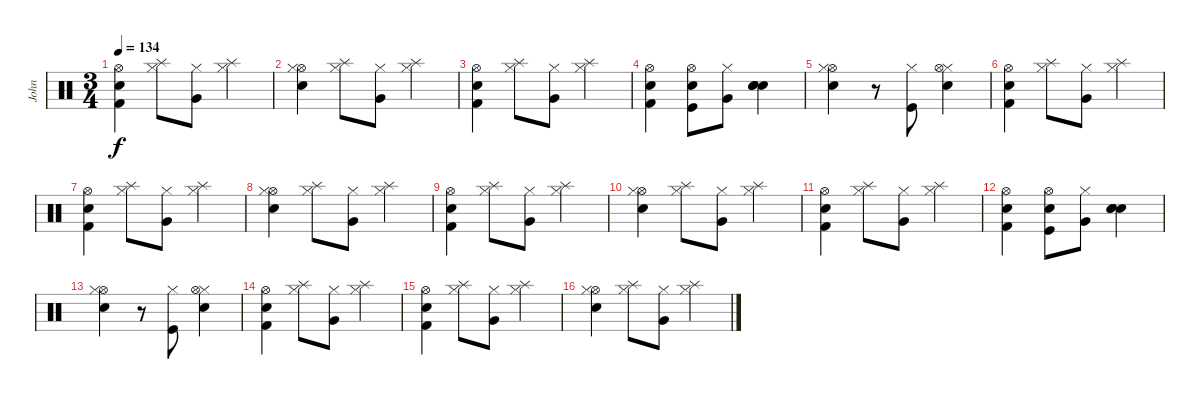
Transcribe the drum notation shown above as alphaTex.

\track ("John" "John") {instrument percussion}
\staff {score}
\articulation defaults
\ts (3 4)
\tempo 134
\clef neutral
\ks c
("Hi-Hat (open)" "Electric Snare (hit)" "Kick (hit) 2").4{dy f} ("Hi-Hat (closed)" "Splash (hit)").8 ("Hi-Hat (closed)" "Very Low Tom (hit)").8 ("Hi-Hat (closed)" "Splash (hit)").4 |
("Hi-Hat (open)" "Hi-Hat (closed)" "Electric Snare (hit)").4 ("Hi-Hat (closed)" "Splash (hit)").8 ("Hi-Hat (closed)" "Very Low Tom (hit)").8 ("Hi-Hat (closed)" "Splash (hit)").4 |
("Hi-Hat (open)" "Electric Snare (hit)" "Kick (hit) 2").4 ("Hi-Hat (closed)" "Splash (hit)").8 ("Hi-Hat (closed)" "Very Low Tom (hit)").8 ("Hi-Hat (closed)" "Splash (hit)").4 |
("Hi-Hat (open)" "Electric Snare (hit)" "Kick (hit) 2").4 ("Hi-Hat (open)" "Electric Snare (hit)" "Kick (hit)").8 ("Hi-Hat (closed)" "Very Low Tom (hit)").8 ("Electric Snare (hit)" "Electric Snare (hit)" "Snare (hit) 2").4 |
("Hi-Hat (open)" "Hi-Hat (closed)" "Electric Snare (hit)").4 r.8 ("Hi-Hat (closed)" "Kick (hit)").8 ("Hi-Hat (closed)" "Electric Snare (hit)" "Hi-Hat (open)").4 |
("Hi-Hat (open)" "Electric Snare (hit)" "Kick (hit) 2").4 ("Hi-Hat (closed)" "Splash (hit)").8 ("Hi-Hat (closed)" "Very Low Tom (hit)").8 ("Hi-Hat (closed)" "Splash (hit)").4 |
("Hi-Hat (open)" "Electric Snare (hit)" "Kick (hit) 2").4 ("Hi-Hat (closed)" "Splash (hit)").8 ("Hi-Hat (closed)" "Very Low Tom (hit)").8 ("Hi-Hat (closed)" "Splash (hit)").4 |
("Hi-Hat (open)" "Hi-Hat (closed)" "Electric Snare (hit)").4 ("Hi-Hat (closed)" "Splash (hit)").8 ("Hi-Hat (closed)" "Very Low Tom (hit)").8 ("Hi-Hat (closed)" "Splash (hit)").4 |
("Hi-Hat (open)" "Electric Snare (hit)" "Kick (hit) 2").4 ("Hi-Hat (closed)" "Splash (hit)").8 ("Hi-Hat (closed)" "Very Low Tom (hit)").8 ("Hi-Hat (closed)" "Splash (hit)").4 |
("Hi-Hat (open)" "Hi-Hat (closed)" "Electric Snare (hit)").4 ("Hi-Hat (closed)" "Splash (hit)").8 ("Hi-Hat (closed)" "Very Low Tom (hit)").8 ("Hi-Hat (closed)" "Splash (hit)").4 |
("Hi-Hat (open)" "Electric Snare (hit)" "Kick (hit) 2").4 ("Hi-Hat (closed)" "Splash (hit)").8 ("Hi-Hat (closed)" "Very Low Tom (hit)").8 ("Hi-Hat (closed)" "Splash (hit)").4 |
("Hi-Hat (open)" "Electric Snare (hit)" "Kick (hit) 2").4 ("Hi-Hat (open)" "Electric Snare (hit)" "Kick (hit)").8 ("Hi-Hat (closed)" "Very Low Tom (hit)").8 ("Electric Snare (hit)" "Electric Snare (hit)" "Snare (hit) 2").4 |
("Hi-Hat (open)" "Hi-Hat (closed)" "Electric Snare (hit)").4 r.8 ("Hi-Hat (closed)" "Kick (hit)").8 ("Hi-Hat (closed)" "Electric Snare (hit)" "Hi-Hat (open)").4 |
("Hi-Hat (open)" "Electric Snare (hit)" "Kick (hit) 2").4 ("Hi-Hat (closed)" "Splash (hit)").8 ("Hi-Hat (closed)" "Very Low Tom (hit)").8 ("Hi-Hat (closed)" "Splash (hit)").4 |
("Hi-Hat (open)" "Electric Snare (hit)" "Kick (hit) 2").4 ("Hi-Hat (closed)" "Splash (hit)").8 ("Hi-Hat (closed)" "Very Low Tom (hit)").8 ("Hi-Hat (closed)" "Splash (hit)").4 |
("Hi-Hat (open)" "Hi-Hat (closed)" "Electric Snare (hit)").4 ("Hi-Hat (closed)" "Splash (hit)").8 ("Hi-Hat (closed)" "Very Low Tom (hit)").8 ("Hi-Hat (closed)" "Splash (hit)").4
